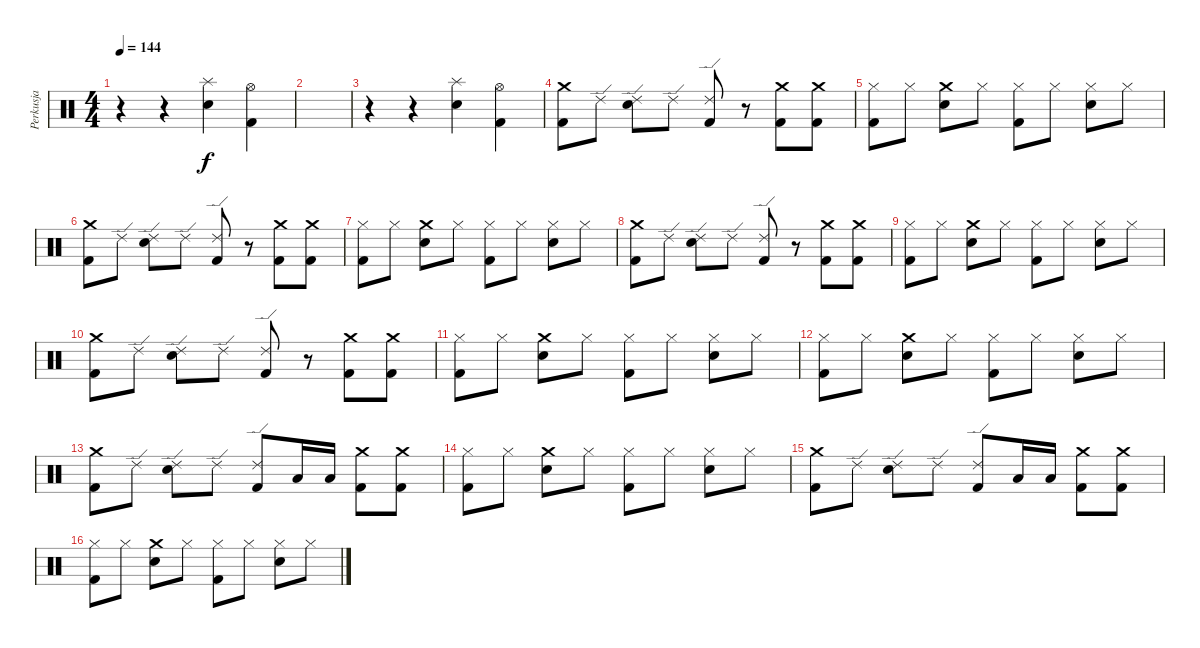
\track ("Perkusja" "Perkusja") {instrument percussion}
\staff {score}
\articulation defaults
\ts (4 4)
\tempo 144
\clef neutral
\ks c
r.4{dy f} r.4 ("Splash (hit)" "Snare (hit) 2").4 ("Hi-Hat (open)" "Kick (hit) 2").4 |
|
r.4 r.4 ("Splash (hit)" "Snare (hit) 2").4 ("Hi-Hat (open)" "Kick (hit) 2").4 |
("Crash medium (hit)" "Kick (hit) 2").8 "Ride (edge) 2".8 ("Snare (hit) 2" "Ride (edge) 2").8 "Ride (edge) 2".8 ("Ride (edge) 2" "Kick (hit) 2").8 r.8 ("Crash medium (hit)" "Kick (hit) 2").8 ("Crash medium (hit)" "Kick (hit) 2").8 |
("Hi-Hat (closed)" "Kick (hit) 2").8 "Hi-Hat (closed)".8 ("Crash medium (hit)" "Snare (hit) 2").8 "Hi-Hat (closed)".8 ("Hi-Hat (closed)" "Kick (hit) 2").8 "Hi-Hat (closed)".8 ("Snare (hit) 2" "Hi-Hat (closed)").8 "Hi-Hat (closed)".8 |
("Crash medium (hit)" "Kick (hit) 2").8 "Ride (edge) 2".8 ("Snare (hit) 2" "Ride (edge) 2").8 "Ride (edge) 2".8 ("Ride (edge) 2" "Kick (hit) 2").8 r.8 ("Crash medium (hit)" "Kick (hit) 2").8 ("Crash medium (hit)" "Kick (hit) 2").8 |
("Hi-Hat (closed)" "Kick (hit) 2").8 "Hi-Hat (closed)".8 ("Crash medium (hit)" "Snare (hit) 2").8 "Hi-Hat (closed)".8 ("Hi-Hat (closed)" "Kick (hit) 2").8 "Hi-Hat (closed)".8 ("Snare (hit) 2" "Hi-Hat (closed)").8 "Hi-Hat (closed)".8 |
("Crash medium (hit)" "Kick (hit) 2").8 "Ride (edge) 2".8 ("Snare (hit) 2" "Ride (edge) 2").8 "Ride (edge) 2".8 ("Ride (edge) 2" "Kick (hit) 2").8 r.8 ("Crash medium (hit)" "Kick (hit) 2").8 ("Crash medium (hit)" "Kick (hit) 2").8 |
("Hi-Hat (closed)" "Kick (hit) 2").8 "Hi-Hat (closed)".8 ("Crash medium (hit)" "Snare (hit) 2").8 "Hi-Hat (closed)".8 ("Hi-Hat (closed)" "Kick (hit) 2").8 "Hi-Hat (closed)".8 ("Snare (hit) 2" "Hi-Hat (closed)").8 "Hi-Hat (closed)".8 |
("Crash medium (hit)" "Kick (hit) 2").8 "Ride (edge) 2".8 ("Snare (hit) 2" "Ride (edge) 2").8 "Ride (edge) 2".8 ("Ride (edge) 2" "Kick (hit) 2").8 r.8 ("Crash medium (hit)" "Kick (hit) 2").8 ("Crash medium (hit)" "Kick (hit) 2").8 |
("Hi-Hat (closed)" "Kick (hit) 2").8 "Hi-Hat (closed)".8 ("Crash medium (hit)" "Snare (hit) 2").8 "Hi-Hat (closed)".8 ("Hi-Hat (closed)" "Kick (hit) 2").8 "Hi-Hat (closed)".8 ("Snare (hit) 2" "Hi-Hat (closed)").8 "Hi-Hat (closed)".8 |
("Hi-Hat (closed)" "Kick (hit) 2").8 "Hi-Hat (closed)".8 ("Crash medium (hit)" "Snare (hit) 2").8 "Hi-Hat (closed)".8 ("Hi-Hat (closed)" "Kick (hit) 2").8 "Hi-Hat (closed)".8 ("Snare (hit) 2" "Hi-Hat (closed)").8 "Hi-Hat (closed)".8 |
("Crash medium (hit)" "Kick (hit) 2").8 "Ride (edge) 2".8 ("Snare (hit) 2" "Ride (edge) 2").8 "Ride (edge) 2".8 ("Ride (edge) 2" "Kick (hit) 2").8 "Low Tom (hit)".16 "Low Tom (hit)".16 ("Crash medium (hit)" "Kick (hit) 2").8 ("Crash medium (hit)" "Kick (hit) 2").8 |
("Hi-Hat (closed)" "Kick (hit) 2").8 "Hi-Hat (closed)".8 ("Crash medium (hit)" "Snare (hit) 2").8 "Hi-Hat (closed)".8 ("Hi-Hat (closed)" "Kick (hit) 2").8 "Hi-Hat (closed)".8 ("Snare (hit) 2" "Hi-Hat (closed)").8 "Hi-Hat (closed)".8 |
("Crash medium (hit)" "Kick (hit) 2").8 "Ride (edge) 2".8 ("Snare (hit) 2" "Ride (edge) 2").8 "Ride (edge) 2".8 ("Ride (edge) 2" "Kick (hit) 2").8 "Low Tom (hit)".16 "Low Tom (hit)".16 ("Crash medium (hit)" "Kick (hit) 2").8 ("Crash medium (hit)" "Kick (hit) 2").8 |
("Hi-Hat (closed)" "Kick (hit) 2").8 "Hi-Hat (closed)".8 ("Crash medium (hit)" "Snare (hit) 2").8 "Hi-Hat (closed)".8 ("Hi-Hat (closed)" "Kick (hit) 2").8 "Hi-Hat (closed)".8 ("Snare (hit) 2" "Hi-Hat (closed)").8 "Hi-Hat (closed)".8
